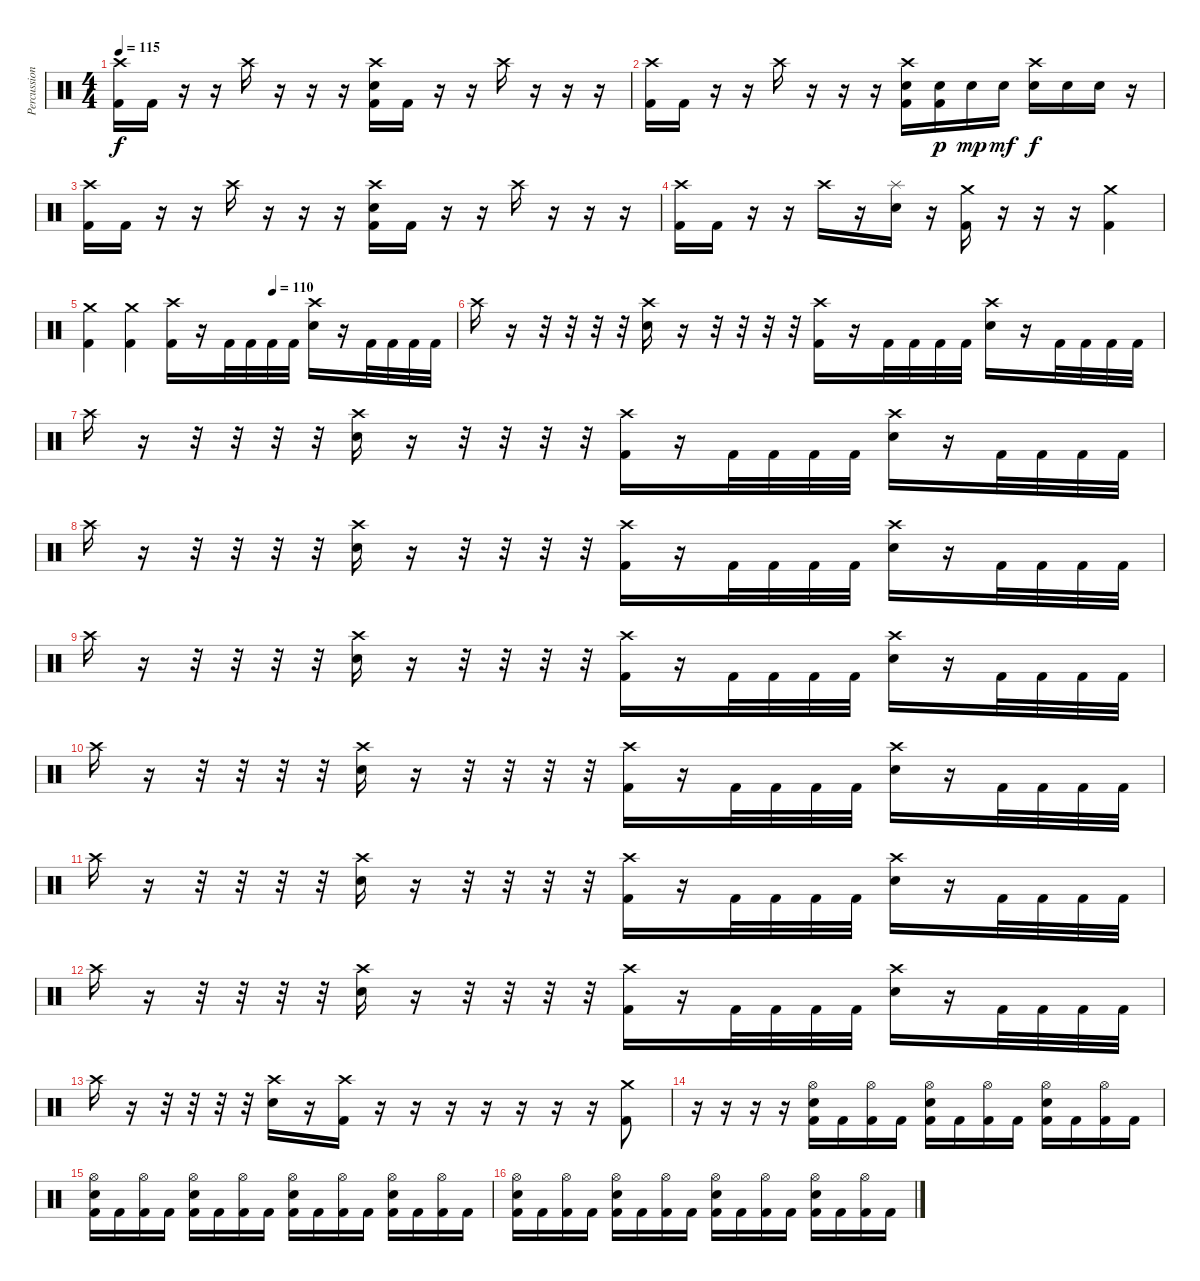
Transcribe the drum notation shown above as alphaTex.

\track ("Percussion" "Percussion") {instrument percussion}
\staff {score}
\articulation defaults
\ts (4 4)
\tempo 115
\clef neutral
\ks c
("Crash high (hit)" "Kick (hit) 2").16{dy f} "Kick (hit) 2".16 r.16 r.16 "Crash high (hit)".16 r.16 r.16 r.16 ("Crash high (hit)" "Snare (hit) 2" "Kick (hit) 2").16 "Kick (hit) 2".16 r.16 r.16 "Crash high (hit)".16 r.16 r.16 r.16 |
("Crash high (hit)" "Kick (hit) 2").16 "Kick (hit) 2".16 r.16 r.16 "Crash high (hit)".16 r.16 r.16 r.16 ("Crash high (hit)" "Snare (hit) 2" "Kick (hit) 2").16 ("Snare (hit) 2" "Kick (hit) 2").16{dy p} "Snare (hit) 2".16{dy mp} "Snare (hit) 2".16{dy mf} ("Crash high (hit)" "Snare (hit) 2").16{dy f} "Snare (hit) 2".16 "Snare (hit) 2".16 r.16 |
("Crash high (hit)" "Kick (hit) 2").16 "Kick (hit) 2".16 r.16 r.16 "Crash high (hit)".16 r.16 r.16 r.16 ("Crash high (hit)" "Snare (hit) 2" "Kick (hit) 2").16 "Kick (hit) 2".16 r.16 r.16 "Crash high (hit)".16 r.16 r.16 r.16 |
("Crash high (hit)" "Kick (hit) 2").16 "Kick (hit) 2".16 r.16 r.16 "Crash high (hit)".16 r.16 ("Splash (hit)" "Snare (hit) 2").16 r.16 ("Crash medium (hit)" "Kick (hit) 2").16 r.16 r.16 r.16 ("Crash medium (hit)" "Kick (hit) 2").4 |
\tempo (110 0.5)
("Crash medium (hit)" "Kick (hit) 2").4 ("Crash medium (hit)" "Kick (hit) 2").4 ("Crash high (hit)" "Kick (hit) 2").16 r.16 "Kick (hit) 2".32 "Kick (hit) 2".32 "Kick (hit) 2".32 "Kick (hit) 2".32 ("Crash high (hit)" "Snare (hit) 2").16 r.16 "Kick (hit) 2".32 "Kick (hit) 2".32 "Kick (hit) 2".32 "Kick (hit) 2".32 |
"Crash high (hit)".16 r.16 r.32 r.32 r.32 r.32 ("Crash high (hit)" "Snare (hit) 2").16 r.16 r.32 r.32 r.32 r.32 ("Crash high (hit)" "Kick (hit) 2").16 r.16 "Kick (hit) 2".32 "Kick (hit) 2".32 "Kick (hit) 2".32 "Kick (hit) 2".32 ("Crash high (hit)" "Snare (hit) 2").16 r.16 "Kick (hit) 2".32 "Kick (hit) 2".32 "Kick (hit) 2".32 "Kick (hit) 2".32 |
"Crash high (hit)".16 r.16 r.32 r.32 r.32 r.32 ("Crash high (hit)" "Snare (hit) 2").16 r.16 r.32 r.32 r.32 r.32 ("Crash high (hit)" "Kick (hit) 2").16 r.16 "Kick (hit) 2".32 "Kick (hit) 2".32 "Kick (hit) 2".32 "Kick (hit) 2".32 ("Crash high (hit)" "Snare (hit) 2").16 r.16 "Kick (hit) 2".32 "Kick (hit) 2".32 "Kick (hit) 2".32 "Kick (hit) 2".32 |
"Crash high (hit)".16 r.16 r.32 r.32 r.32 r.32 ("Crash high (hit)" "Snare (hit) 2").16 r.16 r.32 r.32 r.32 r.32 ("Crash high (hit)" "Kick (hit) 2").16 r.16 "Kick (hit) 2".32 "Kick (hit) 2".32 "Kick (hit) 2".32 "Kick (hit) 2".32 ("Crash high (hit)" "Snare (hit) 2").16 r.16 "Kick (hit) 2".32 "Kick (hit) 2".32 "Kick (hit) 2".32 "Kick (hit) 2".32 |
"Crash high (hit)".16 r.16 r.32 r.32 r.32 r.32 ("Crash high (hit)" "Snare (hit) 2").16 r.16 r.32 r.32 r.32 r.32 ("Crash high (hit)" "Kick (hit) 2").16 r.16 "Kick (hit) 2".32 "Kick (hit) 2".32 "Kick (hit) 2".32 "Kick (hit) 2".32 ("Crash high (hit)" "Snare (hit) 2").16 r.16 "Kick (hit) 2".32 "Kick (hit) 2".32 "Kick (hit) 2".32 "Kick (hit) 2".32 |
"Crash high (hit)".16 r.16 r.32 r.32 r.32 r.32 ("Crash high (hit)" "Snare (hit) 2").16 r.16 r.32 r.32 r.32 r.32 ("Crash high (hit)" "Kick (hit) 2").16 r.16 "Kick (hit) 2".32 "Kick (hit) 2".32 "Kick (hit) 2".32 "Kick (hit) 2".32 ("Crash high (hit)" "Snare (hit) 2").16 r.16 "Kick (hit) 2".32 "Kick (hit) 2".32 "Kick (hit) 2".32 "Kick (hit) 2".32 |
"Crash high (hit)".16 r.16 r.32 r.32 r.32 r.32 ("Crash high (hit)" "Snare (hit) 2").16 r.16 r.32 r.32 r.32 r.32 ("Crash high (hit)" "Kick (hit) 2").16 r.16 "Kick (hit) 2".32 "Kick (hit) 2".32 "Kick (hit) 2".32 "Kick (hit) 2".32 ("Crash high (hit)" "Snare (hit) 2").16 r.16 "Kick (hit) 2".32 "Kick (hit) 2".32 "Kick (hit) 2".32 "Kick (hit) 2".32 |
"Crash high (hit)".16 r.16 r.32 r.32 r.32 r.32 ("Crash high (hit)" "Snare (hit) 2").16 r.16 r.32 r.32 r.32 r.32 ("Crash high (hit)" "Kick (hit) 2").16 r.16 "Kick (hit) 2".32 "Kick (hit) 2".32 "Kick (hit) 2".32 "Kick (hit) 2".32 ("Crash high (hit)" "Snare (hit) 2").16 r.16 "Kick (hit) 2".32 "Kick (hit) 2".32 "Kick (hit) 2".32 "Kick (hit) 2".32 |
"Crash high (hit)".16 r.16 r.32 r.32 r.32 r.32 ("Crash high (hit)" "Snare (hit) 2").16 r.16 ("Crash high (hit)" "Kick (hit) 2").16 r.16 r.16 r.16 r.16 r.16 r.16 r.16 ("Crash medium (hit)" "Kick (hit) 2").8 |
r.16 r.16 r.16 r.16 ("Hi-Hat (open)" "Snare (hit) 2" "Kick (hit) 2").16 "Kick (hit) 2".16 ("Hi-Hat (open)" "Kick (hit) 2").16 "Kick (hit) 2".16 ("Hi-Hat (open)" "Snare (hit) 2" "Kick (hit) 2").16 "Kick (hit) 2".16 ("Hi-Hat (open)" "Kick (hit) 2").16 "Kick (hit) 2".16 ("Hi-Hat (open)" "Snare (hit) 2" "Kick (hit) 2").16 "Kick (hit) 2".16 ("Hi-Hat (open)" "Kick (hit) 2").16 "Kick (hit) 2".16 |
("Hi-Hat (open)" "Snare (hit) 2" "Kick (hit) 2").16 "Kick (hit) 2".16 ("Hi-Hat (open)" "Kick (hit) 2").16 "Kick (hit) 2".16 ("Hi-Hat (open)" "Snare (hit) 2" "Kick (hit) 2").16 "Kick (hit) 2".16 ("Hi-Hat (open)" "Kick (hit) 2").16 "Kick (hit) 2".16 ("Hi-Hat (open)" "Snare (hit) 2" "Kick (hit) 2").16 "Kick (hit) 2".16 ("Hi-Hat (open)" "Kick (hit) 2").16 "Kick (hit) 2".16 ("Hi-Hat (open)" "Snare (hit) 2" "Kick (hit) 2").16 "Kick (hit) 2".16 ("Hi-Hat (open)" "Kick (hit) 2").16 "Kick (hit) 2".16 |
("Hi-Hat (open)" "Snare (hit) 2" "Kick (hit) 2").16 "Kick (hit) 2".16 ("Hi-Hat (open)" "Kick (hit) 2").16 "Kick (hit) 2".16 ("Hi-Hat (open)" "Snare (hit) 2" "Kick (hit) 2").16 "Kick (hit) 2".16 ("Hi-Hat (open)" "Kick (hit) 2").16 "Kick (hit) 2".16 ("Hi-Hat (open)" "Snare (hit) 2" "Kick (hit) 2").16 "Kick (hit) 2".16 ("Hi-Hat (open)" "Kick (hit) 2").16 "Kick (hit) 2".16 ("Hi-Hat (open)" "Snare (hit) 2" "Kick (hit) 2").16 "Kick (hit) 2".16 ("Hi-Hat (open)" "Kick (hit) 2").16 "Kick (hit) 2".16
